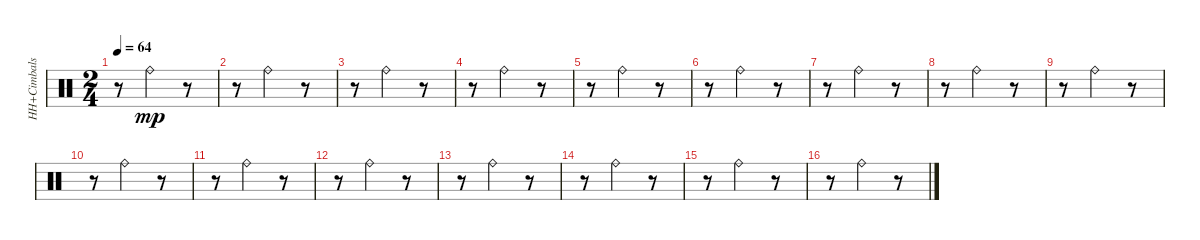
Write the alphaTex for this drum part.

\track ("HH+Cimbals" "HH+Cimbals") {instrument percussion}
\staff {score}
\articulation defaults
\ts (2 4)
\tempo 64
\clef neutral
\ks c
r.8{dy mp} "Ride (bell)".4 r.8 |
r.8 "Ride (bell)".4 r.8 |
r.8 "Ride (bell)".4 r.8 |
r.8 "Ride (bell)".4 r.8 |
r.8 "Ride (bell)".4 r.8 |
r.8 "Ride (bell)".4 r.8 |
r.8 "Ride (bell)".4 r.8 |
r.8 "Ride (bell)".4 r.8 |
r.8 "Ride (bell)".4 r.8 |
r.8 "Ride (bell)".4 r.8 |
r.8 "Ride (bell)".4 r.8 |
r.8 "Ride (bell)".4 r.8 |
r.8 "Ride (bell)".4 r.8 |
r.8 "Ride (bell)".4 r.8 |
r.8 "Ride (bell)".4 r.8 |
r.8 "Ride (bell)".4 r.8
